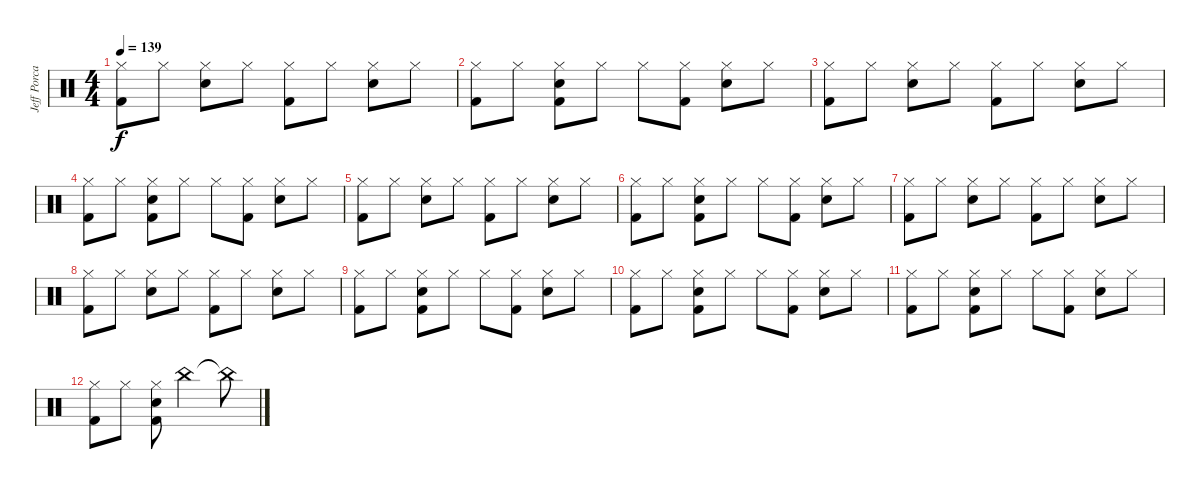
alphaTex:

\track ("Jeff Porcaro (Percussion)" "Jeff Porca") {instrument percussion}
\staff {score}
\articulation defaults
\ts (4 4)
\tempo 139
\clef neutral
\ks c
("Hi-Hat (closed)" "Kick (hit) 2").8{dy f} "Hi-Hat (closed)".8 ("Hi-Hat (closed)" "Snare (hit) 2").8 "Hi-Hat (closed)".8 ("Hi-Hat (closed)" "Kick (hit) 2").8 "Hi-Hat (closed)".8 ("Hi-Hat (closed)" "Snare (hit) 2").8 "Hi-Hat (closed)".8 |
("Hi-Hat (closed)" "Kick (hit) 2").8 "Hi-Hat (closed)".8 ("Hi-Hat (closed)" "Snare (hit) 2" "Kick (hit) 2").8 "Hi-Hat (closed)".8 "Hi-Hat (closed)".8 ("Hi-Hat (closed)" "Kick (hit) 2").8 ("Hi-Hat (closed)" "Snare (hit) 2").8 "Hi-Hat (closed)".8 |
("Hi-Hat (closed)" "Kick (hit) 2").8 "Hi-Hat (closed)".8 ("Hi-Hat (closed)" "Snare (hit) 2").8 "Hi-Hat (closed)".8 ("Hi-Hat (closed)" "Kick (hit) 2").8 "Hi-Hat (closed)".8 ("Hi-Hat (closed)" "Snare (hit) 2").8 "Hi-Hat (closed)".8 |
("Hi-Hat (closed)" "Kick (hit) 2").8 "Hi-Hat (closed)".8 ("Hi-Hat (closed)" "Snare (hit) 2" "Kick (hit) 2").8 "Hi-Hat (closed)".8 "Hi-Hat (closed)".8 ("Hi-Hat (closed)" "Kick (hit) 2").8 ("Hi-Hat (closed)" "Snare (hit) 2").8 "Hi-Hat (closed)".8 |
("Hi-Hat (closed)" "Kick (hit) 2").8 "Hi-Hat (closed)".8 ("Hi-Hat (closed)" "Snare (hit) 2").8 "Hi-Hat (closed)".8 ("Hi-Hat (closed)" "Kick (hit) 2").8 "Hi-Hat (closed)".8 ("Hi-Hat (closed)" "Snare (hit) 2").8 "Hi-Hat (closed)".8 |
("Hi-Hat (closed)" "Kick (hit) 2").8 "Hi-Hat (closed)".8 ("Hi-Hat (closed)" "Snare (hit) 2" "Kick (hit) 2").8 "Hi-Hat (closed)".8 "Hi-Hat (closed)".8 ("Hi-Hat (closed)" "Kick (hit) 2").8 ("Hi-Hat (closed)" "Snare (hit) 2").8 "Hi-Hat (closed)".8 |
("Hi-Hat (closed)" "Kick (hit) 2").8 "Hi-Hat (closed)".8 ("Hi-Hat (closed)" "Snare (hit) 2").8 "Hi-Hat (closed)".8 ("Hi-Hat (closed)" "Kick (hit) 2").8 "Hi-Hat (closed)".8 ("Hi-Hat (closed)" "Snare (hit) 2").8 "Hi-Hat (closed)".8 |
("Hi-Hat (closed)" "Kick (hit) 2").8 "Hi-Hat (closed)".8 ("Hi-Hat (closed)" "Snare (hit) 2").8 "Hi-Hat (closed)".8 ("Hi-Hat (closed)" "Kick (hit) 2").8 "Hi-Hat (closed)".8 ("Hi-Hat (closed)" "Snare (hit) 2").8 "Hi-Hat (closed)".8 |
("Hi-Hat (closed)" "Kick (hit) 2").8 "Hi-Hat (closed)".8 ("Hi-Hat (closed)" "Snare (hit) 2" "Kick (hit) 2").8 "Hi-Hat (closed)".8 "Hi-Hat (closed)".8 ("Hi-Hat (closed)" "Kick (hit) 2").8 ("Hi-Hat (closed)" "Snare (hit) 2").8 "Hi-Hat (closed)".8 |
("Hi-Hat (closed)" "Kick (hit) 2").8 "Hi-Hat (closed)".8 ("Hi-Hat (closed)" "Snare (hit) 2" "Kick (hit) 2").8 "Hi-Hat (closed)".8 "Hi-Hat (closed)".8 ("Hi-Hat (closed)" "Kick (hit) 2").8 ("Hi-Hat (closed)" "Snare (hit) 2").8 "Hi-Hat (closed)".8 |
("Hi-Hat (closed)" "Kick (hit) 2").8 "Hi-Hat (closed)".8 ("Hi-Hat (closed)" "Snare (hit) 2" "Kick (hit) 2").8 "Hi-Hat (closed)".8 "Hi-Hat (closed)".8 ("Hi-Hat (closed)" "Kick (hit) 2").8 ("Hi-Hat (closed)" "Snare (hit) 2").8 "Hi-Hat (closed)".8 |
("Hi-Hat (closed)" "Kick (hit) 2").8 "Hi-Hat (closed)".8 ("Hi-Hat (closed)" "Snare (hit) 2" "Kick (hit) 2").8 "China (hit)".2 "China (hit)"{t}.8
